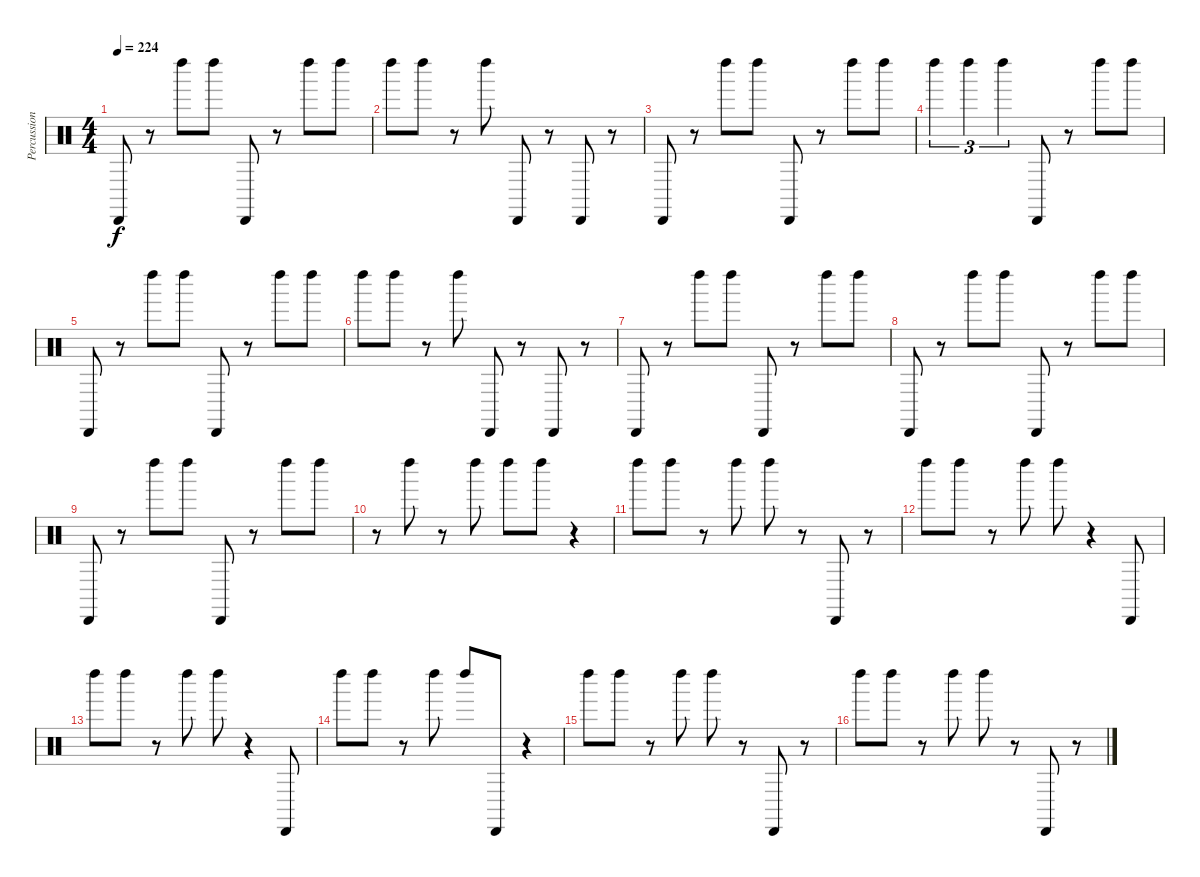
\track ("Percussion" "Percussion") {solo instrument percussion}
\staff {score}
\articulation defaults
\ts (4 4)
\tempo 224
\clef neutral
\ks c "Cabasa (hit)".8{dy f}
r.8 "Left Maraca (hit)".8 "Left Maraca (hit)".8 "Cabasa (hit)".8 r.8 "Left Maraca (hit)".8 "Left Maraca (hit)".8 |
"Left Maraca (hit)".8 "Left Maraca (hit)".8 r.8 "Left Maraca (hit)".8 "Cabasa (hit)".8 r.8 "Cabasa (hit)".8 r.8 |
"Cabasa (hit)".8 r.8 "Left Maraca (hit)".8 "Left Maraca (hit)".8 "Cabasa (hit)".8 r.8 "Left Maraca (hit)".8 "Left Maraca (hit)".8 |
"Left Maraca (hit)".4{tu (3 2)} "Left Maraca (hit)".4{tu (3 2)} "Left Maraca (hit)".4{tu (3 2)} "Cabasa (hit)".8 r.8 "Left Maraca (hit)".8 "Left Maraca (hit)".8 |
"Cabasa (hit)".8 r.8 "Left Maraca (hit)".8 "Left Maraca (hit)".8 "Cabasa (hit)".8 r.8 "Left Maraca (hit)".8 "Left Maraca (hit)".8 |
"Left Maraca (hit)".8 "Left Maraca (hit)".8 r.8 "Left Maraca (hit)".8 "Cabasa (hit)".8 r.8 "Cabasa (hit)".8 r.8 |
"Cabasa (hit)".8 r.8 "Left Maraca (hit)".8 "Left Maraca (hit)".8 "Cabasa (hit)".8 r.8 "Left Maraca (hit)".8 "Left Maraca (hit)".8 |
"Cabasa (hit)".8 r.8 "Left Maraca (hit)".8 "Left Maraca (hit)".8 "Cabasa (hit)".8 r.8 "Left Maraca (hit)".8 "Left Maraca (hit)".8 |
"Cabasa (hit)".8 r.8 "Left Maraca (hit)".8 "Left Maraca (hit)".8 "Cabasa (hit)".8 r.8 "Left Maraca (hit)".8 "Left Maraca (hit)".8 |
r.8 "Left Maraca (hit)".8 r.8 "Left Maraca (hit)".8 "Left Maraca (hit)".8 "Left Maraca (hit)".8 r.4 |
"Left Maraca (hit)".8 "Left Maraca (hit)".8 r.8 "Left Maraca (hit)".8 "Left Maraca (hit)".8 r.8 "Cabasa (hit)".8 r.8 |
"Left Maraca (hit)".8 "Left Maraca (hit)".8 r.8 "Left Maraca (hit)".8 "Left Maraca (hit)".8 r.4 "Cabasa (hit)".8 |
"Left Maraca (hit)".8 "Left Maraca (hit)".8 r.8 "Left Maraca (hit)".8 "Left Maraca (hit)".8 r.4 "Cabasa (hit)".8 |
"Left Maraca (hit)".8 "Left Maraca (hit)".8 r.8 "Left Maraca (hit)".8 "Left Maraca (hit)".8 "Cabasa (hit)".8 r.4 |
"Left Maraca (hit)".8 "Left Maraca (hit)".8 r.8 "Left Maraca (hit)".8 "Left Maraca (hit)".8 r.8 "Cabasa (hit)".8 r.8 |
"Left Maraca (hit)".8 "Left Maraca (hit)".8 r.8 "Left Maraca (hit)".8 "Left Maraca (hit)".8 r.8 "Cabasa (hit)".8 r.8
